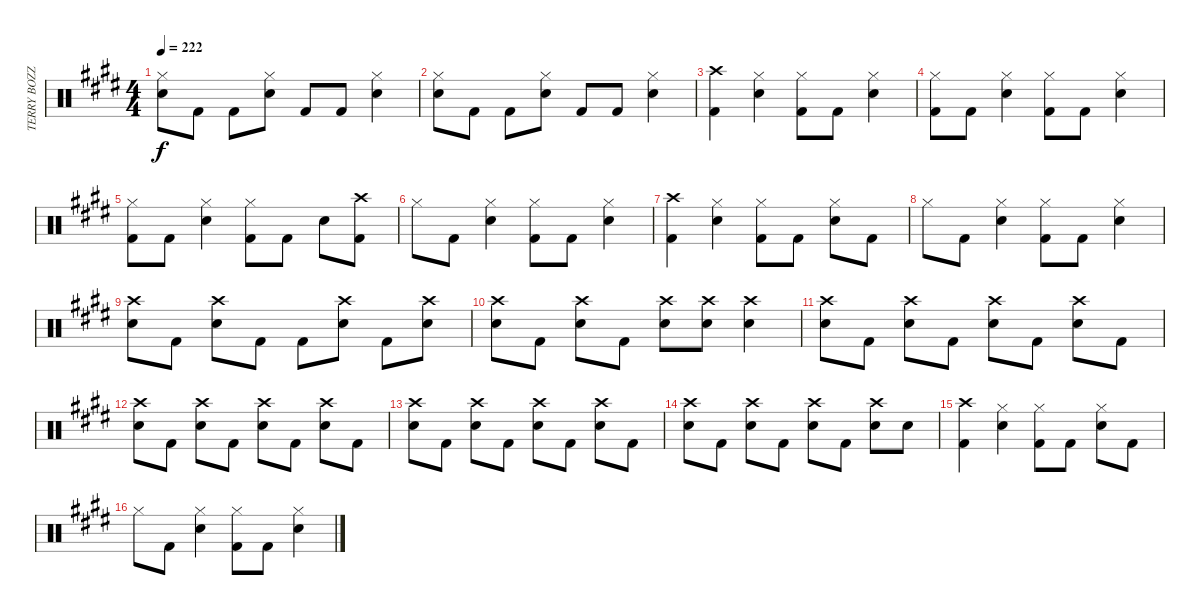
\track ("TERRY BOZZIO" "TERRY BOZZ") {instrument percussion}
\staff {score}
\articulation defaults
\ts (4 4)
\tempo 222
\clef neutral
\ks c#minor
("Hi-Hat (closed)" "Snare (hit) 2").8{dy f} "Kick (hit) 2".8 "Kick (hit) 2".8 ("Hi-Hat (closed)" "Snare (hit) 2").8 "Kick (hit) 2".8 "Kick (hit) 2".8 ("Hi-Hat (closed)" "Snare (hit) 2").4 |
("Hi-Hat (closed)" "Snare (hit) 2").8 "Kick (hit) 2".8 "Kick (hit) 2".8 ("Hi-Hat (closed)" "Snare (hit) 2").8 "Kick (hit) 2".8 "Kick (hit) 2".8 ("Hi-Hat (closed)" "Snare (hit) 2").4 |
("Crash high (hit)" "Kick (hit) 2").4 ("Hi-Hat (closed)" "Snare (hit) 2").4 ("Hi-Hat (closed)" "Kick (hit) 2").8 "Kick (hit) 2".8 ("Hi-Hat (closed)" "Snare (hit) 2").4 |
("Hi-Hat (closed)" "Kick (hit) 2").8 "Kick (hit) 2".8 ("Hi-Hat (closed)" "Snare (hit) 2").4 ("Hi-Hat (closed)" "Kick (hit) 2").8 "Kick (hit) 2".8 ("Hi-Hat (closed)" "Snare (hit) 2").4 |
("Hi-Hat (closed)" "Kick (hit) 2").8 "Kick (hit) 2".8 ("Hi-Hat (closed)" "Snare (hit) 2").4 ("Hi-Hat (closed)" "Kick (hit) 2").8 "Kick (hit) 2".8 "Snare (hit) 2".8 ("Crash high (hit)" "Kick (hit) 2").8 |
"Hi-Hat (closed)".8 "Kick (hit) 2".8 ("Hi-Hat (closed)" "Snare (hit) 2").4 ("Hi-Hat (closed)" "Kick (hit) 2").8 "Kick (hit) 2".8 ("Hi-Hat (closed)" "Snare (hit) 2").4 |
("Crash high (hit)" "Kick (hit) 2").4 ("Hi-Hat (closed)" "Snare (hit) 2").4 ("Hi-Hat (closed)" "Kick (hit) 2").8 "Kick (hit) 2".8 ("Hi-Hat (closed)" "Snare (hit) 2").8 "Kick (hit) 2".8 |
"Hi-Hat (closed)".8 "Kick (hit) 2".8 ("Hi-Hat (closed)" "Snare (hit) 2").4 ("Hi-Hat (closed)" "Kick (hit) 2").8 "Kick (hit) 2".8 ("Hi-Hat (closed)" "Snare (hit) 2").4 |
("Crash high (hit)" "Snare (hit) 2").8 "Kick (hit) 2".8 ("Crash high (hit)" "Snare (hit) 2").8 "Kick (hit) 2".8 "Kick (hit) 2".8 ("Crash high (hit)" "Snare (hit) 2").8 "Kick (hit) 2".8 ("Crash high (hit)" "Snare (hit) 2").8 |
("Crash high (hit)" "Snare (hit) 2").8 "Kick (hit) 2".8 ("Crash high (hit)" "Snare (hit) 2").8 "Kick (hit) 2".8 ("Crash high (hit)" "Snare (hit) 2").8 ("Crash high (hit)" "Snare (hit) 2").8 ("Crash high (hit)" "Snare (hit) 2").4 |
("Crash high (hit)" "Snare (hit) 2").8 "Kick (hit) 2".8 ("Crash high (hit)" "Snare (hit) 2").8 "Kick (hit) 2".8 ("Crash high (hit)" "Snare (hit) 2").8 "Kick (hit) 2".8 ("Crash high (hit)" "Snare (hit) 2").8 "Kick (hit) 2".8 |
("Crash high (hit)" "Snare (hit) 2").8 "Kick (hit) 2".8 ("Crash high (hit)" "Snare (hit) 2").8 "Kick (hit) 2".8 ("Crash high (hit)" "Snare (hit) 2").8 "Kick (hit) 2".8 ("Crash high (hit)" "Snare (hit) 2").8 "Kick (hit) 2".8 |
("Crash high (hit)" "Snare (hit) 2").8 "Kick (hit) 2".8 ("Crash high (hit)" "Snare (hit) 2").8 "Kick (hit) 2".8 ("Crash high (hit)" "Snare (hit) 2").8 "Kick (hit) 2".8 ("Crash high (hit)" "Snare (hit) 2").8 "Kick (hit) 2".8 |
("Crash high (hit)" "Snare (hit) 2").8 "Kick (hit) 2".8 ("Crash high (hit)" "Snare (hit) 2").8 "Kick (hit) 2".8 ("Crash high (hit)" "Snare (hit) 2").8 "Kick (hit) 2".8 ("Crash high (hit)" "Snare (hit) 2").8 "Snare (hit) 2".8 |
("Crash high (hit)" "Kick (hit) 2").4 ("Hi-Hat (closed)" "Snare (hit) 2").4 ("Hi-Hat (closed)" "Kick (hit) 2").8 "Kick (hit) 2".8 ("Hi-Hat (closed)" "Snare (hit) 2").8 "Kick (hit) 2".8 |
"Hi-Hat (closed)".8 "Kick (hit) 2".8 ("Hi-Hat (closed)" "Snare (hit) 2").4 ("Hi-Hat (closed)" "Kick (hit) 2").8 "Kick (hit) 2".8 ("Hi-Hat (closed)" "Snare (hit) 2").4
